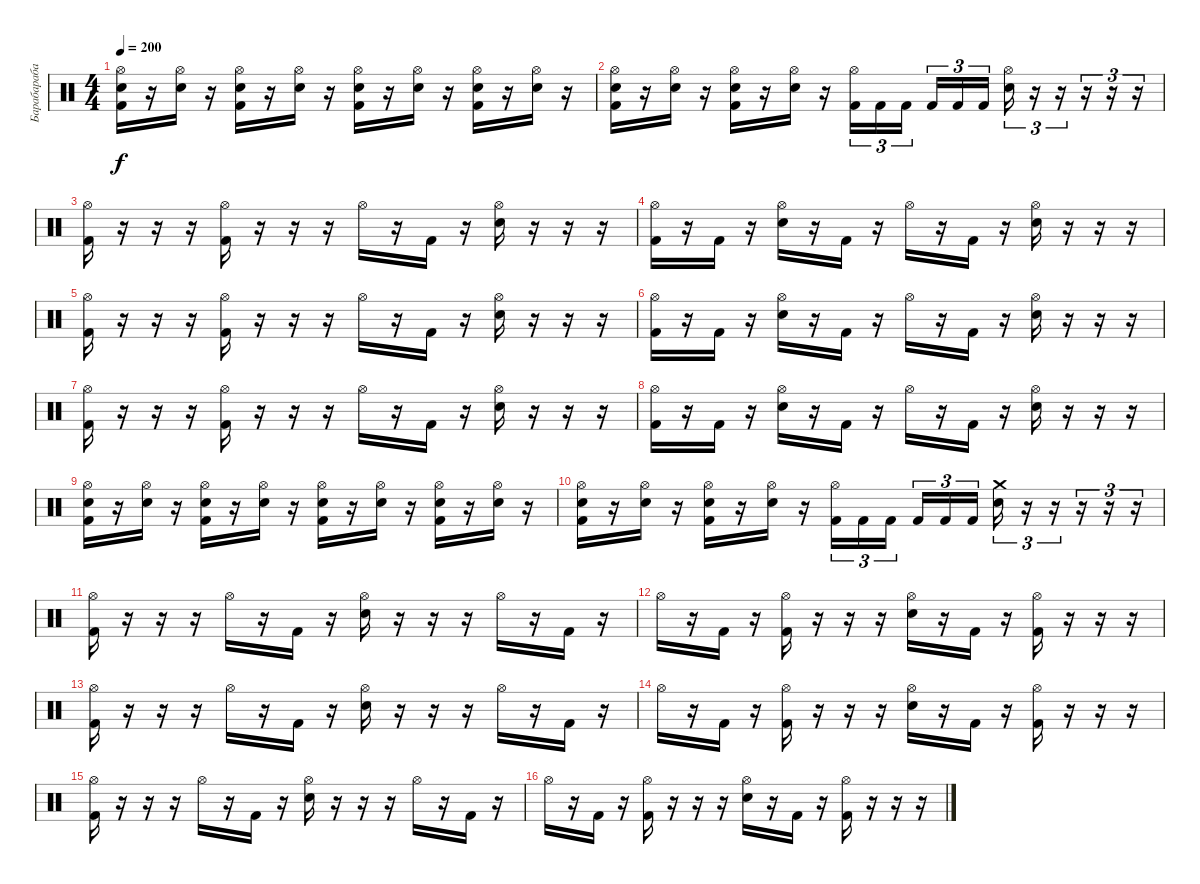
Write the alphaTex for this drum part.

\track ("Барабарабаны" "Барабараба") {instrument percussion}
\staff {score}
\articulation defaults
\ts (4 4)
\tempo 200
\clef neutral
\ks c
("Kick (hit) 2" "Hi-Hat (open)" "Electric Snare (hit)").16{dy f} r.16 ("Hi-Hat (open)" "Electric Snare (hit)").16 r.16 ("Kick (hit) 2" "Hi-Hat (open)" "Electric Snare (hit)").16 r.16 ("Hi-Hat (open)" "Electric Snare (hit)").16 r.16 ("Kick (hit) 2" "Hi-Hat (open)" "Electric Snare (hit)").16 r.16 ("Hi-Hat (open)" "Electric Snare (hit)").16 r.16 ("Kick (hit) 2" "Hi-Hat (open)" "Electric Snare (hit)").16 r.16 ("Hi-Hat (open)" "Electric Snare (hit)").16 r.16 |
("Kick (hit) 2" "Hi-Hat (open)" "Electric Snare (hit)").16 r.16 ("Hi-Hat (open)" "Electric Snare (hit)").16 r.16 ("Kick (hit) 2" "Hi-Hat (open)" "Electric Snare (hit)").16 r.16 ("Hi-Hat (open)" "Electric Snare (hit)").16 r.16 ("Kick (hit) 2" "Hi-Hat (open)").16{tu (3 2)} "Kick (hit) 2".16{tu (3 2)} "Kick (hit) 2".16{tu (3 2) beam splitsecondary} "Kick (hit) 2".16{tu (3 2)} "Kick (hit) 2".16{tu (3 2)} "Kick (hit) 2".16{tu (3 2)} ("Electric Snare (hit)" "Hi-Hat (open)").16{tu (3 2)} r.16{tu (3 2)} r.16{tu (3 2)} r.16{tu (3 2)} r.16{tu (3 2)} r.16{tu (3 2)} |
("Hi-Hat (open)" "Kick (hit) 2").16 r.16 r.16 r.16 ("Hi-Hat (open)" "Kick (hit) 2").16 r.16 r.16 r.16 "Hi-Hat (open)".16 r.16 "Kick (hit) 2".16 r.16 ("Hi-Hat (open)" "Electric Snare (hit)").16 r.16 r.16 r.16 |
("Hi-Hat (open)" "Kick (hit) 2").16 r.16 "Kick (hit) 2".16 r.16 ("Hi-Hat (open)" "Electric Snare (hit)").16 r.16 "Kick (hit) 2".16 r.16 "Hi-Hat (open)".16 r.16 "Kick (hit) 2".16 r.16 ("Hi-Hat (open)" "Electric Snare (hit)").16 r.16 r.16 r.16 |
("Hi-Hat (open)" "Kick (hit) 2").16 r.16 r.16 r.16 ("Hi-Hat (open)" "Kick (hit) 2").16 r.16 r.16 r.16 "Hi-Hat (open)".16 r.16 "Kick (hit) 2".16 r.16 ("Hi-Hat (open)" "Electric Snare (hit)").16 r.16 r.16 r.16 |
("Hi-Hat (open)" "Kick (hit) 2").16 r.16 "Kick (hit) 2".16 r.16 ("Hi-Hat (open)" "Electric Snare (hit)").16 r.16 "Kick (hit) 2".16 r.16 "Hi-Hat (open)".16 r.16 "Kick (hit) 2".16 r.16 ("Hi-Hat (open)" "Electric Snare (hit)").16 r.16 r.16 r.16 |
("Hi-Hat (open)" "Kick (hit) 2").16 r.16 r.16 r.16 ("Hi-Hat (open)" "Kick (hit) 2").16 r.16 r.16 r.16 "Hi-Hat (open)".16 r.16 "Kick (hit) 2".16 r.16 ("Hi-Hat (open)" "Electric Snare (hit)").16 r.16 r.16 r.16 |
("Hi-Hat (open)" "Kick (hit) 2").16 r.16 "Kick (hit) 2".16 r.16 ("Hi-Hat (open)" "Electric Snare (hit)").16 r.16 "Kick (hit) 2".16 r.16 "Hi-Hat (open)".16 r.16 "Kick (hit) 2".16 r.16 ("Hi-Hat (open)" "Electric Snare (hit)").16 r.16 r.16 r.16 |
("Kick (hit) 2" "Hi-Hat (open)" "Electric Snare (hit)").16 r.16 ("Electric Snare (hit)" "Hi-Hat (open)").16 r.16 ("Kick (hit) 2" "Hi-Hat (open)" "Electric Snare (hit)").16 r.16 ("Electric Snare (hit)" "Hi-Hat (open)").16 r.16 ("Kick (hit) 2" "Hi-Hat (open)" "Electric Snare (hit)").16 r.16 ("Electric Snare (hit)" "Hi-Hat (open)").16 r.16 ("Kick (hit) 2" "Hi-Hat (open)" "Electric Snare (hit)").16 r.16 ("Electric Snare (hit)" "Hi-Hat (open)").16 r.16 |
("Kick (hit) 2" "Hi-Hat (open)" "Electric Snare (hit)").16 r.16 ("Hi-Hat (open)" "Electric Snare (hit)").16 r.16 ("Kick (hit) 2" "Hi-Hat (open)" "Electric Snare (hit)").16 r.16 ("Hi-Hat (open)" "Electric Snare (hit)").16 r.16 ("Kick (hit) 2" "Hi-Hat (open)").16{tu (3 2)} "Kick (hit) 2".16{tu (3 2)} "Kick (hit) 2".16{tu (3 2) beam splitsecondary} "Kick (hit) 2".16{tu (3 2)} "Kick (hit) 2".16{tu (3 2)} "Kick (hit) 2".16{tu (3 2)} ("Electric Snare (hit)" "Crash medium (hit)").16{tu (3 2)} r.16{tu (3 2)} r.16{tu (3 2)} r.16{tu (3 2)} r.16{tu (3 2)} r.16{tu (3 2)} |
("Hi-Hat (open)" "Kick (hit) 2").16 r.16 r.16 r.16 "Hi-Hat (open)".16 r.16 "Kick (hit) 2".16 r.16 ("Hi-Hat (open)" "Electric Snare (hit)").16 r.16 r.16 r.16 "Hi-Hat (open)".16 r.16 "Kick (hit) 2".16 r.16 |
"Hi-Hat (open)".16 r.16 "Kick (hit) 2".16 r.16 ("Hi-Hat (open)" "Kick (hit) 2").16 r.16 r.16 r.16 ("Hi-Hat (open)" "Electric Snare (hit)").16 r.16 "Kick (hit) 2".16 r.16 ("Hi-Hat (open)" "Kick (hit) 2").16 r.16 r.16 r.16 |
("Hi-Hat (open)" "Kick (hit) 2").16 r.16 r.16 r.16 "Hi-Hat (open)".16 r.16 "Kick (hit) 2".16 r.16 ("Hi-Hat (open)" "Electric Snare (hit)").16 r.16 r.16 r.16 "Hi-Hat (open)".16 r.16 "Kick (hit) 2".16 r.16 |
"Hi-Hat (open)".16 r.16 "Kick (hit) 2".16 r.16 ("Hi-Hat (open)" "Kick (hit) 2").16 r.16 r.16 r.16 ("Hi-Hat (open)" "Electric Snare (hit)").16 r.16 "Kick (hit) 2".16 r.16 ("Hi-Hat (open)" "Kick (hit) 2").16 r.16 r.16 r.16 |
("Hi-Hat (open)" "Kick (hit) 2").16 r.16 r.16 r.16 "Hi-Hat (open)".16 r.16 "Kick (hit) 2".16 r.16 ("Hi-Hat (open)" "Electric Snare (hit)").16 r.16 r.16 r.16 "Hi-Hat (open)".16 r.16 "Kick (hit) 2".16 r.16 |
"Hi-Hat (open)".16 r.16 "Kick (hit) 2".16 r.16 ("Hi-Hat (open)" "Kick (hit) 2").16 r.16 r.16 r.16 ("Hi-Hat (open)" "Electric Snare (hit)").16 r.16 "Kick (hit) 2".16 r.16 ("Hi-Hat (open)" "Kick (hit) 2").16 r.16 r.16 r.16
